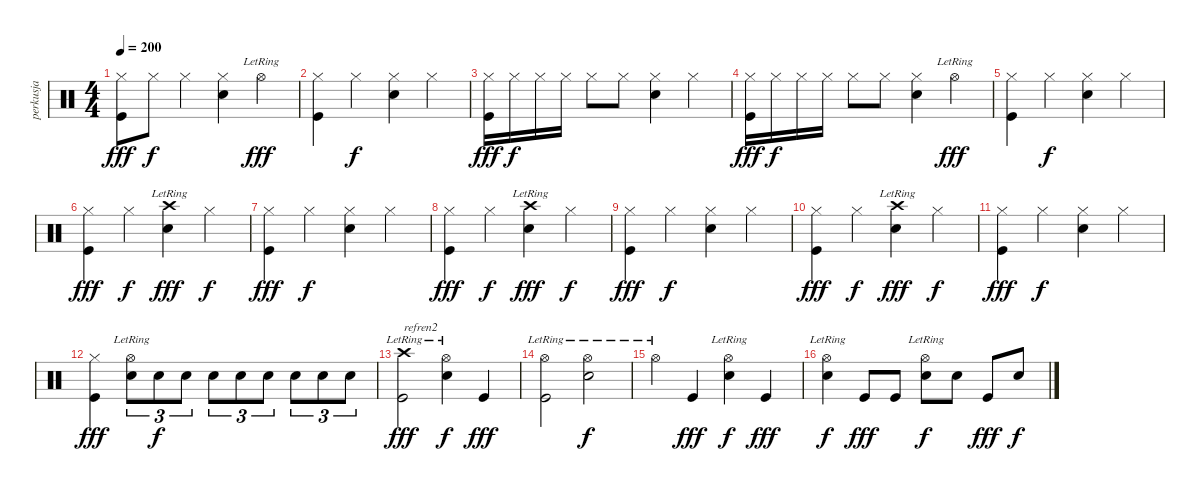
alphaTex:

\track ("perkusja" "perkusja") {instrument percussion}
\staff {score}
\articulation defaults
\ts (4 4)
\tempo 200
\clef neutral
\ks c
("Hi-Hat (closed)" "Kick (hit)").8{dy fff} "Hi-Hat (closed)".8{dy f} "Hi-Hat (closed)".4 ("Hi-Hat (closed)" "Electric Snare (hit)").4 "Hi-Hat (open)"{lr}.4{dy fff} |
("Hi-Hat (closed)" "Kick (hit)").4 "Hi-Hat (closed)".4{dy f} ("Hi-Hat (closed)" "Electric Snare (hit)").4 "Hi-Hat (closed)".4 |
("Hi-Hat (closed)" "Kick (hit)").16{dy fff} "Hi-Hat (closed)".16{dy f} "Hi-Hat (closed)".16 "Hi-Hat (closed)".16 "Hi-Hat (closed)".8 "Hi-Hat (closed)".8 ("Hi-Hat (closed)" "Electric Snare (hit)").4 "Hi-Hat (closed)".4 |
("Hi-Hat (closed)" "Kick (hit)").16{dy fff} "Hi-Hat (closed)".16{dy f} "Hi-Hat (closed)".16 "Hi-Hat (closed)".16 "Hi-Hat (closed)".8 "Hi-Hat (closed)".8 ("Hi-Hat (closed)" "Electric Snare (hit)").4 "Hi-Hat (open)"{lr}.4{dy fff} |
("Hi-Hat (closed)" "Kick (hit)").4 "Hi-Hat (closed)".4{dy f} ("Hi-Hat (closed)" "Electric Snare (hit)").4 "Hi-Hat (closed)".4 |
("Hi-Hat (closed)" "Kick (hit)").4{dy fff} "Hi-Hat (closed)".4{dy f} ("Crash high (hit)"{lr} "Electric Snare (hit)").4{dy fff} "Hi-Hat (closed)".4{dy f} |
("Hi-Hat (closed)" "Kick (hit)").4{dy fff} "Hi-Hat (closed)".4{dy f} ("Hi-Hat (closed)" "Electric Snare (hit)").4 "Hi-Hat (closed)".4 |
("Hi-Hat (closed)" "Kick (hit)").4{dy fff} "Hi-Hat (closed)".4{dy f} ("Crash high (hit)"{lr} "Electric Snare (hit)").4{dy fff} "Hi-Hat (closed)".4{dy f} |
("Hi-Hat (closed)" "Kick (hit)").4{dy fff} "Hi-Hat (closed)".4{dy f} ("Hi-Hat (closed)" "Electric Snare (hit)").4 "Hi-Hat (closed)".4 |
("Hi-Hat (closed)" "Kick (hit)").4{dy fff} "Hi-Hat (closed)".4{dy f} ("Crash high (hit)"{lr} "Electric Snare (hit)").4{dy fff} "Hi-Hat (closed)".4{dy f} |
("Hi-Hat (closed)" "Kick (hit)").4{dy fff} "Hi-Hat (closed)".4{dy f} ("Hi-Hat (closed)" "Electric Snare (hit)").4 "Hi-Hat (closed)".4 |
("Hi-Hat (closed)" "Kick (hit)").4{dy fff} ("Hi-Hat (open)"{lr} "Electric Snare (hit)").8{tu (3 2)} "Electric Snare (hit)".8{tu (3 2) dy f} "Electric Snare (hit)".8{tu (3 2)} "Electric Snare (hit)".8{tu (3 2)} "Electric Snare (hit)".8{tu (3 2)} "Electric Snare (hit)".8{tu (3 2)} "Electric Snare (hit)".8{tu (3 2)} "Electric Snare (hit)".8{tu (3 2)} "Electric Snare (hit)".8{tu (3 2)} |
("Crash high (hit)"{lr} "Kick (hit)").2{txt "refren2" dy fff} ("Hi-Hat (open)"{lr} "Electric Snare (hit)").4{dy f} "Kick (hit)".4{dy fff} |
("Hi-Hat (open)"{lr} "Kick (hit)").2 ("Hi-Hat (open)"{lr} "Electric Snare (hit)").2{dy f} |
"Hi-Hat (open)"{lr}.4 "Kick (hit)".4{dy fff} ("Hi-Hat (open)"{lr} "Electric Snare (hit)").4{dy f} "Kick (hit)".4{dy fff} |
("Hi-Hat (open)"{lr} "Electric Snare (hit)").4{dy f} "Kick (hit)".8{dy fff} "Kick (hit)".8 ("Hi-Hat (open)"{lr} "Electric Snare (hit)").8{dy f} "Electric Snare (hit)".8 "Kick (hit)".8{dy fff} "Electric Snare (hit)".8{dy f}
